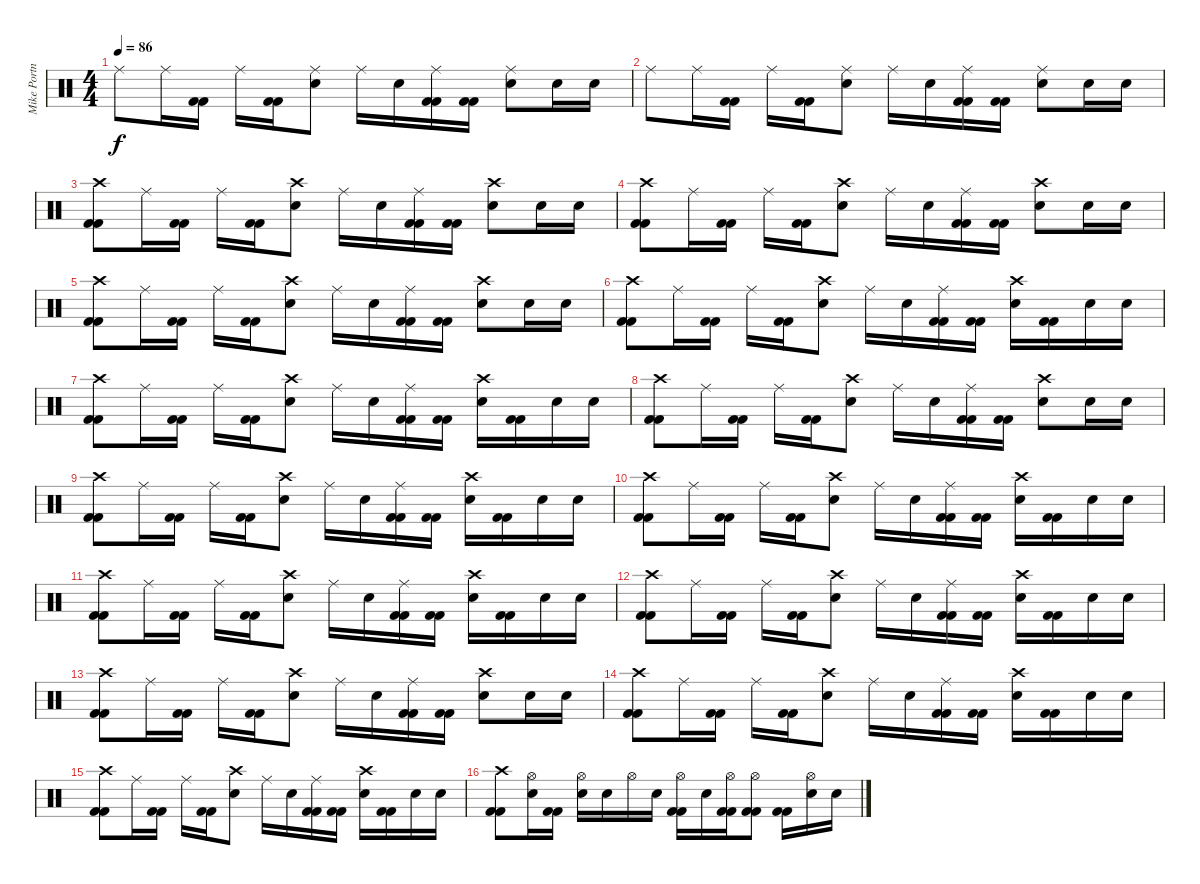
\track ("Mike Portnoy - Drum" "Mike Portn") {instrument percussion}
\staff {score}
\articulation defaults
\ts (4 4)
\tempo 86
\clef neutral
\ks c "Ride (middle)".8{dy f} "Ride (middle)".16
("Kick (hit) 2" "Kick (hit) 2").16 "Ride (middle)".16 ("Kick (hit) 2" "Kick (hit) 2").16 ("Ride (middle)" "Snare (hit) 2").8 "Ride (middle)".16 "Snare (hit) 2".16 ("Ride (middle)" "Kick (hit) 2" "Kick (hit) 2").16 ("Kick (hit) 2" "Kick (hit) 2").16 ("Ride (middle)" "Snare (hit) 2").8 "Snare (hit) 2".16 "Snare (hit) 2".16 |
"Ride (middle)".8 "Ride (middle)".16 ("Kick (hit) 2" "Kick (hit) 2").16 "Ride (middle)".16 ("Kick (hit) 2" "Kick (hit) 2").16 ("Ride (middle)" "Snare (hit) 2").8 "Ride (middle)".16 "Snare (hit) 2".16 ("Ride (middle)" "Kick (hit) 2" "Kick (hit) 2").16 ("Kick (hit) 2" "Kick (hit) 2").16 ("Ride (middle)" "Snare (hit) 2").8 "Snare (hit) 2".16 "Snare (hit) 2".16 |
("Crash high (hit)" "Kick (hit) 2" "Kick (hit) 2").8 "Ride (middle)".16 ("Kick (hit) 2" "Kick (hit) 2").16 "Ride (middle)".16 ("Kick (hit) 2" "Kick (hit) 2").16 ("Crash high (hit)" "Snare (hit) 2").8 "Ride (middle)".16 "Snare (hit) 2".16 ("Ride (middle)" "Kick (hit) 2" "Kick (hit) 2").16 ("Kick (hit) 2" "Kick (hit) 2").16 ("Crash high (hit)" "Snare (hit) 2").8 "Snare (hit) 2".16 "Snare (hit) 2".16 |
("Crash high (hit)" "Kick (hit) 2" "Kick (hit) 2").8 "Ride (middle)".16 ("Kick (hit) 2" "Kick (hit) 2").16 "Ride (middle)".16 ("Kick (hit) 2" "Kick (hit) 2").16 ("Crash high (hit)" "Snare (hit) 2").8 "Ride (middle)".16 "Snare (hit) 2".16 ("Ride (middle)" "Kick (hit) 2" "Kick (hit) 2").16 ("Kick (hit) 2" "Kick (hit) 2").16 ("Crash high (hit)" "Snare (hit) 2").8 "Snare (hit) 2".16 "Snare (hit) 2".16 |
("Crash high (hit)" "Kick (hit) 2" "Kick (hit) 2").8 "Ride (middle)".16 ("Kick (hit) 2" "Kick (hit) 2").16 "Ride (middle)".16 ("Kick (hit) 2" "Kick (hit) 2").16 ("Crash high (hit)" "Snare (hit) 2").8 "Ride (middle)".16 "Snare (hit) 2".16 ("Ride (middle)" "Kick (hit) 2" "Kick (hit) 2").16 ("Kick (hit) 2" "Kick (hit) 2").16 ("Crash high (hit)" "Snare (hit) 2").8 "Snare (hit) 2".16 "Snare (hit) 2".16 |
("Crash high (hit)" "Kick (hit) 2" "Kick (hit) 2").8 "Ride (middle)".16 ("Kick (hit) 2" "Kick (hit) 2").16 "Ride (middle)".16 ("Kick (hit) 2" "Kick (hit) 2").16 ("Crash high (hit)" "Snare (hit) 2").8 "Ride (middle)".16 "Snare (hit) 2".16 ("Ride (middle)" "Kick (hit) 2" "Kick (hit) 2").16 ("Kick (hit) 2" "Kick (hit) 2").16 ("Crash high (hit)" "Snare (hit) 2").16 ("Kick (hit) 2" "Kick (hit) 2").16 "Snare (hit) 2".16 "Snare (hit) 2".16 |
("Crash high (hit)" "Kick (hit) 2" "Kick (hit) 2").8 "Ride (middle)".16 ("Kick (hit) 2" "Kick (hit) 2").16 "Ride (middle)".16 ("Kick (hit) 2" "Kick (hit) 2").16 ("Crash high (hit)" "Snare (hit) 2").8 "Ride (middle)".16 "Snare (hit) 2".16 ("Ride (middle)" "Kick (hit) 2" "Kick (hit) 2").16 ("Kick (hit) 2" "Kick (hit) 2").16 ("Crash high (hit)" "Snare (hit) 2").16 ("Kick (hit) 2" "Kick (hit) 2").16 "Snare (hit) 2".16 "Snare (hit) 2".16 |
("Crash high (hit)" "Kick (hit) 2" "Kick (hit) 2").8 "Ride (middle)".16 ("Kick (hit) 2" "Kick (hit) 2").16 "Ride (middle)".16 ("Kick (hit) 2" "Kick (hit) 2").16 ("Crash high (hit)" "Snare (hit) 2").8 "Ride (middle)".16 "Snare (hit) 2".16 ("Ride (middle)" "Kick (hit) 2" "Kick (hit) 2").16 ("Kick (hit) 2" "Kick (hit) 2").16 ("Crash high (hit)" "Snare (hit) 2").8 "Snare (hit) 2".16 "Snare (hit) 2".16 |
("Crash high (hit)" "Kick (hit) 2" "Kick (hit) 2").8 "Ride (middle)".16 ("Kick (hit) 2" "Kick (hit) 2").16 "Ride (middle)".16 ("Kick (hit) 2" "Kick (hit) 2").16 ("Crash high (hit)" "Snare (hit) 2").8 "Ride (middle)".16 "Snare (hit) 2".16 ("Ride (middle)" "Kick (hit) 2" "Kick (hit) 2").16 ("Kick (hit) 2" "Kick (hit) 2").16 ("Crash high (hit)" "Snare (hit) 2").16 ("Kick (hit) 2" "Kick (hit) 2").16 "Snare (hit) 2".16 "Snare (hit) 2".16 |
("Crash high (hit)" "Kick (hit) 2" "Kick (hit) 2").8 "Ride (middle)".16 ("Kick (hit) 2" "Kick (hit) 2").16 "Ride (middle)".16 ("Kick (hit) 2" "Kick (hit) 2").16 ("Crash high (hit)" "Snare (hit) 2").8 "Ride (middle)".16 "Snare (hit) 2".16 ("Ride (middle)" "Kick (hit) 2" "Kick (hit) 2").16 ("Kick (hit) 2" "Kick (hit) 2").16 ("Crash high (hit)" "Snare (hit) 2").16 ("Kick (hit) 2" "Kick (hit) 2").16 "Snare (hit) 2".16 "Snare (hit) 2".16 |
("Crash high (hit)" "Kick (hit) 2" "Kick (hit) 2").8 "Ride (middle)".16 ("Kick (hit) 2" "Kick (hit) 2").16 "Ride (middle)".16 ("Kick (hit) 2" "Kick (hit) 2").16 ("Crash high (hit)" "Snare (hit) 2").8 "Ride (middle)".16 "Snare (hit) 2".16 ("Ride (middle)" "Kick (hit) 2" "Kick (hit) 2").16 ("Kick (hit) 2" "Kick (hit) 2").16 ("Crash high (hit)" "Snare (hit) 2").16 ("Kick (hit) 2" "Kick (hit) 2").16 "Snare (hit) 2".16 "Snare (hit) 2".16 |
("Crash high (hit)" "Kick (hit) 2" "Kick (hit) 2").8 "Ride (middle)".16 ("Kick (hit) 2" "Kick (hit) 2").16 "Ride (middle)".16 ("Kick (hit) 2" "Kick (hit) 2").16 ("Crash high (hit)" "Snare (hit) 2").8 "Ride (middle)".16 "Snare (hit) 2".16 ("Ride (middle)" "Kick (hit) 2" "Kick (hit) 2").16 ("Kick (hit) 2" "Kick (hit) 2").16 ("Crash high (hit)" "Snare (hit) 2").16 ("Kick (hit) 2" "Kick (hit) 2").16 "Snare (hit) 2".16 "Snare (hit) 2".16 |
("Crash high (hit)" "Kick (hit) 2" "Kick (hit) 2").8 "Ride (middle)".16 ("Kick (hit) 2" "Kick (hit) 2").16 "Ride (middle)".16 ("Kick (hit) 2" "Kick (hit) 2").16 ("Crash high (hit)" "Snare (hit) 2").8 "Ride (middle)".16 "Snare (hit) 2".16 ("Ride (middle)" "Kick (hit) 2" "Kick (hit) 2").16 ("Kick (hit) 2" "Kick (hit) 2").16 ("Crash high (hit)" "Snare (hit) 2").8 "Snare (hit) 2".16 "Snare (hit) 2".16 |
("Crash high (hit)" "Kick (hit) 2" "Kick (hit) 2").8 "Ride (middle)".16 ("Kick (hit) 2" "Kick (hit) 2").16 "Ride (middle)".16 ("Kick (hit) 2" "Kick (hit) 2").16 ("Crash high (hit)" "Snare (hit) 2").8 "Ride (middle)".16 "Snare (hit) 2".16 ("Ride (middle)" "Kick (hit) 2" "Kick (hit) 2").16 ("Kick (hit) 2" "Kick (hit) 2").16 ("Crash high (hit)" "Snare (hit) 2").16 ("Kick (hit) 2" "Kick (hit) 2").16 "Snare (hit) 2".16 "Snare (hit) 2".16 |
("Crash high (hit)" "Kick (hit) 2" "Kick (hit) 2").8 "Ride (middle)".16 ("Kick (hit) 2" "Kick (hit) 2").16 "Ride (middle)".16 ("Kick (hit) 2" "Kick (hit) 2").16 ("Crash high (hit)" "Snare (hit) 2").8 "Ride (middle)".16 "Snare (hit) 2".16 ("Ride (middle)" "Kick (hit) 2" "Kick (hit) 2").16 ("Kick (hit) 2" "Kick (hit) 2").16 ("Crash high (hit)" "Snare (hit) 2").16 ("Kick (hit) 2" "Kick (hit) 2").16 "Snare (hit) 2".16 "Snare (hit) 2".16 |
("Crash high (hit)" "Kick (hit) 2" "Kick (hit) 2").8 ("Hi-Hat (open)" "Snare (hit) 2").16 ("Kick (hit) 2" "Kick (hit) 2").16 ("Hi-Hat (open)" "Snare (hit) 2").16 "Snare (hit) 2".16 "Hi-Hat (open)".16 "Snare (hit) 2".16 ("Hi-Hat (open)" "Kick (hit) 2" "Kick (hit) 2").16 "Snare (hit) 2".16 ("Hi-Hat (open)" "Kick (hit) 2" "Kick (hit) 2").16 ("Hi-Hat (open)" "Kick (hit) 2" "Kick (hit) 2").8 ("Kick (hit) 2" "Kick (hit) 2").16 ("Hi-Hat (open)" "Snare (hit) 2").16 "Snare (hit) 2".16
